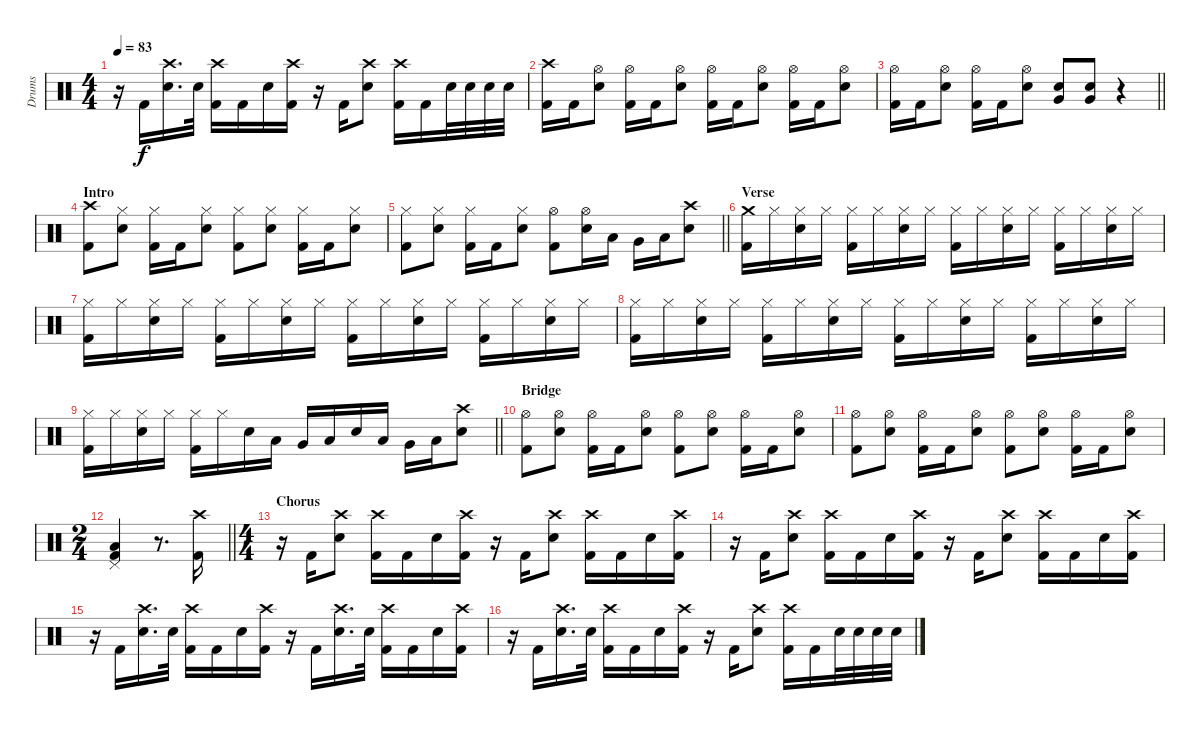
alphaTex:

\track ("Drums" "Drums") {instrument percussion}
\staff {score}
\articulation defaults
\ts (4 4)
\tempo 83
\clef neutral
\ks c
r.16{dy f} "Kick (hit) 2".16 ("Crash high (hit)" "Electric Snare (hit)").16{d} "Electric Snare (hit)".32 ("Crash high (hit)" "Kick (hit) 2").16 "Kick (hit) 2".16 "Electric Snare (hit)".16 ("Crash high (hit)" "Kick (hit) 2").16 r.16 "Kick (hit) 2".16 ("Crash high (hit)" "Electric Snare (hit)").8 ("Crash high (hit)" "Kick (hit) 2").16 "Kick (hit) 2".16 "Electric Snare (hit)".32 "Electric Snare (hit)".32 "Electric Snare (hit)".32 "Electric Snare (hit)".32 |
("Crash high (hit)" "Kick (hit) 2").16 "Kick (hit) 2".16 ("Hi-Hat (open)" "Electric Snare (hit)").8 ("Hi-Hat (open)" "Kick (hit) 2").16 "Kick (hit) 2".16 ("Hi-Hat (open)" "Electric Snare (hit)").8 ("Hi-Hat (open)" "Kick (hit) 2").16 "Kick (hit) 2".16 ("Hi-Hat (open)" "Electric Snare (hit)").8 ("Hi-Hat (open)" "Kick (hit) 2").16 "Kick (hit) 2".16 ("Hi-Hat (open)" "Electric Snare (hit)").8 |
\barLineRight lightlight
("Hi-Hat (open)" "Kick (hit) 2").16 "Kick (hit) 2".16 ("Hi-Hat (open)" "Electric Snare (hit)").8 ("Hi-Hat (open)" "Kick (hit) 2").16 "Kick (hit) 2".16 ("Hi-Hat (open)" "Electric Snare (hit)").8 ("Electric Snare (hit)" "Very Low Tom (hit)").8 ("Electric Snare (hit)" "Very Low Tom (hit)").8 r.4 |
\section ("" "Intro")
("Crash high (hit)" "Kick (hit) 2").8 ("Hi-Hat (closed)" "Electric Snare (hit)").8 ("Hi-Hat (closed)" "Kick (hit) 2").16 "Kick (hit) 2".16 ("Hi-Hat (closed)" "Electric Snare (hit)").8 ("Hi-Hat (closed)" "Kick (hit) 2").8 ("Hi-Hat (closed)" "Electric Snare (hit)").8 ("Hi-Hat (closed)" "Kick (hit) 2").16 "Kick (hit) 2".16 ("Hi-Hat (closed)" "Electric Snare (hit)").8 |
\barLineRight lightlight
("Hi-Hat (closed)" "Kick (hit) 2").8 ("Hi-Hat (closed)" "Electric Snare (hit)").8 ("Hi-Hat (closed)" "Kick (hit) 2").16 "Kick (hit) 2".16 ("Hi-Hat (closed)" "Electric Snare (hit)").8 ("Hi-Hat (open)" "Kick (hit) 2").8 ("Hi-Hat (open)" "Electric Snare (hit)").16 "Low Tom (hit)".16 "Very Low Tom (hit)".16 "Low Floor Tom (hit)".16 ("Crash high (hit)" "Electric Snare (hit)").8 |
\section ("" "Verse")
("Crash medium (hit)" "Kick (hit) 2").16 "Hi-Hat (closed)".16 ("Hi-Hat (closed)" "Electric Snare (hit)").16 "Hi-Hat (closed)".16 ("Hi-Hat (closed)" "Kick (hit) 2").16 "Hi-Hat (closed)".16 ("Hi-Hat (closed)" "Electric Snare (hit)").16 "Hi-Hat (closed)".16 ("Hi-Hat (closed)" "Kick (hit) 2").16 "Hi-Hat (closed)".16 ("Hi-Hat (closed)" "Electric Snare (hit)").16 "Hi-Hat (closed)".16 ("Hi-Hat (closed)" "Kick (hit) 2").16 "Hi-Hat (closed)".16 ("Hi-Hat (closed)" "Electric Snare (hit)").16 "Hi-Hat (closed)".16 |
("Hi-Hat (closed)" "Kick (hit) 2").16 "Hi-Hat (closed)".16 ("Hi-Hat (closed)" "Electric Snare (hit)").16 "Hi-Hat (closed)".16 ("Hi-Hat (closed)" "Kick (hit) 2").16 "Hi-Hat (closed)".16 ("Hi-Hat (closed)" "Electric Snare (hit)").16 "Hi-Hat (closed)".16 ("Hi-Hat (closed)" "Kick (hit) 2").16 "Hi-Hat (closed)".16 ("Hi-Hat (closed)" "Electric Snare (hit)").16 "Hi-Hat (closed)".16 ("Hi-Hat (closed)" "Kick (hit) 2").16 "Hi-Hat (closed)".16 ("Hi-Hat (closed)" "Electric Snare (hit)").16 "Hi-Hat (closed)".16 |
("Hi-Hat (closed)" "Kick (hit) 2").16 "Hi-Hat (closed)".16 ("Hi-Hat (closed)" "Electric Snare (hit)").16 "Hi-Hat (closed)".16 ("Hi-Hat (closed)" "Kick (hit) 2").16 "Hi-Hat (closed)".16 ("Hi-Hat (closed)" "Electric Snare (hit)").16 "Hi-Hat (closed)".16 ("Hi-Hat (closed)" "Kick (hit) 2").16 "Hi-Hat (closed)".16 ("Hi-Hat (closed)" "Electric Snare (hit)").16 "Hi-Hat (closed)".16 ("Hi-Hat (closed)" "Kick (hit) 2").16 "Hi-Hat (closed)".16 ("Hi-Hat (closed)" "Electric Snare (hit)").16 "Hi-Hat (closed)".16 |
\barLineRight lightlight
("Hi-Hat (closed)" "Kick (hit) 2").16 "Hi-Hat (closed)".16 ("Hi-Hat (closed)" "Electric Snare (hit)").16 "Hi-Hat (closed)".16 ("Hi-Hat (closed)" "Kick (hit) 2").16 "Hi-Hat (closed)".16 "Electric Snare (hit)".16 "Low Tom (hit)".16 "Very Low Tom (hit)".16 "Low Floor Tom (hit)".16 "Electric Snare (hit)".16 "Low Tom (hit)".16 "Very Low Tom (hit)".16 "Low Floor Tom (hit)".16 ("Crash high (hit)" "Electric Snare (hit)").8 |
\section ("" "Bridge")
("Hi-Hat (open)" "Kick (hit) 2").8 ("Hi-Hat (open)" "Electric Snare (hit)").8 ("Hi-Hat (open)" "Kick (hit) 2").16 "Kick (hit) 2".16 ("Hi-Hat (open)" "Electric Snare (hit)").8 ("Hi-Hat (open)" "Kick (hit) 2").8 ("Hi-Hat (open)" "Electric Snare (hit)").8 ("Hi-Hat (open)" "Kick (hit) 2").16 "Kick (hit) 2".16 ("Hi-Hat (open)" "Electric Snare (hit)").8 |
("Hi-Hat (open)" "Kick (hit) 2").8 ("Hi-Hat (open)" "Electric Snare (hit)").8 ("Hi-Hat (open)" "Kick (hit) 2").16 "Kick (hit) 2".16 ("Hi-Hat (open)" "Electric Snare (hit)").8 ("Hi-Hat (open)" "Kick (hit) 2").8 ("Hi-Hat (open)" "Electric Snare (hit)").8 ("Hi-Hat (open)" "Kick (hit) 2").16 "Kick (hit) 2".16 ("Hi-Hat (open)" "Electric Snare (hit)").8 |
\ts (2 4)
\barLineRight lightlight
("Pedal Hi-Hat (hit)" "Low Floor Tom (hit)" "Kick (hit) 2").4 r.8{d} ("Crash high (hit)" "Kick (hit) 2").16 |
\ts (4 4)
\section ("" "Chorus")
r.16 "Kick (hit) 2".16 ("Crash high (hit)" "Electric Snare (hit)").8 ("Crash high (hit)" "Kick (hit) 2").16 "Kick (hit) 2".16 "Electric Snare (hit)".16 ("Crash high (hit)" "Kick (hit) 2").16 r.16 "Kick (hit) 2".16 ("Crash high (hit)" "Electric Snare (hit)").8 ("Crash high (hit)" "Kick (hit) 2").16 "Kick (hit) 2".16 "Electric Snare (hit)".16 ("Crash high (hit)" "Kick (hit) 2").16 |
r.16 "Kick (hit) 2".16 ("Crash high (hit)" "Electric Snare (hit)").8 ("Crash high (hit)" "Kick (hit) 2").16 "Kick (hit) 2".16 "Electric Snare (hit)".16 ("Crash high (hit)" "Kick (hit) 2").16 r.16 "Kick (hit) 2".16 ("Crash high (hit)" "Electric Snare (hit)").8 ("Crash high (hit)" "Kick (hit) 2").16 "Kick (hit) 2".16 "Electric Snare (hit)".16 ("Crash high (hit)" "Kick (hit) 2").16 |
r.16 "Kick (hit) 2".16 ("Crash high (hit)" "Electric Snare (hit)").16{d} "Electric Snare (hit)".32 ("Crash high (hit)" "Kick (hit) 2").16 "Kick (hit) 2".16 "Electric Snare (hit)".16 ("Crash high (hit)" "Kick (hit) 2").16 r.16 "Kick (hit) 2".16 ("Crash high (hit)" "Electric Snare (hit)").16{d} "Electric Snare (hit)".32 ("Crash high (hit)" "Kick (hit) 2").16 "Kick (hit) 2".16 "Electric Snare (hit)".16 ("Crash high (hit)" "Kick (hit) 2").16 |
r.16 "Kick (hit) 2".16 ("Crash high (hit)" "Electric Snare (hit)").16{d} "Electric Snare (hit)".32 ("Crash high (hit)" "Kick (hit) 2").16 "Kick (hit) 2".16 "Electric Snare (hit)".16 ("Crash high (hit)" "Kick (hit) 2").16 r.16 "Kick (hit) 2".16 ("Crash high (hit)" "Electric Snare (hit)").8 ("Crash high (hit)" "Kick (hit) 2").16 "Kick (hit) 2".16 "Electric Snare (hit)".32 "Electric Snare (hit)".32 "Electric Snare (hit)".32 "Electric Snare (hit)".32
